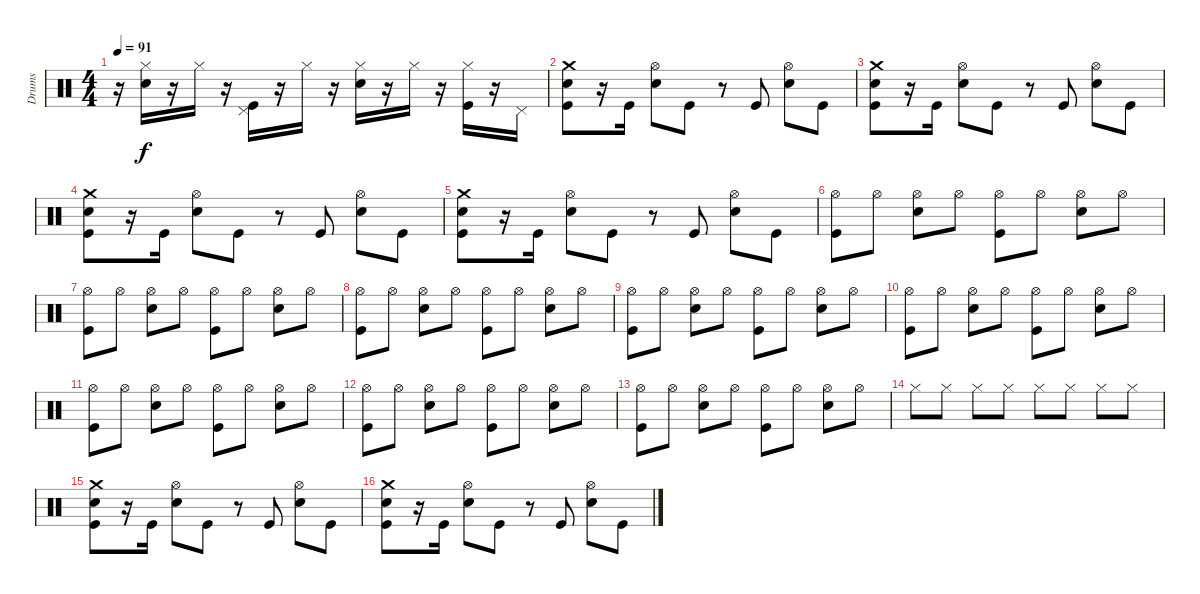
\track ("Drums" "Drums") {instrument percussion}
\staff {score}
\articulation defaults
\ts (4 4)
\tempo 91
\clef neutral
\ks c
r.16{dy f} ("Hi-Hat (closed)" "Snare (hit) 2").16 r.16 "Hi-Hat (closed)".16 r.16 ("Pedal Hi-Hat (hit)" "Kick (hit)").16 r.16 "Hi-Hat (closed)".16 r.16 ("Hi-Hat (closed)" "Snare (hit) 2").16 r.16 "Hi-Hat (closed)".16 r.16 ("Hi-Hat (closed)" "Kick (hit)").16 r.16 "Pedal Hi-Hat (hit)".16 |
("Crash medium (hit)" "Snare (hit) 2" "Kick (hit)").8 r.16 "Kick (hit)".16 ("Hi-Hat (open)" "Snare (hit) 2").8 "Kick (hit)".8 r.8 "Kick (hit)".8 ("Hi-Hat (open)" "Snare (hit) 2").8 "Kick (hit)".8 |
("Crash medium (hit)" "Snare (hit) 2" "Kick (hit)").8 r.16 "Kick (hit)".16 ("Hi-Hat (open)" "Snare (hit) 2").8 "Kick (hit)".8 r.8 "Kick (hit)".8 ("Hi-Hat (open)" "Snare (hit) 2").8 "Kick (hit)".8 |
("Crash medium (hit)" "Snare (hit) 2" "Kick (hit)").8 r.16 "Kick (hit)".16 ("Hi-Hat (open)" "Snare (hit) 2").8 "Kick (hit)".8 r.8 "Kick (hit)".8 ("Hi-Hat (open)" "Snare (hit) 2").8 "Kick (hit)".8 |
("Crash medium (hit)" "Snare (hit) 2" "Kick (hit)").8 r.16 "Kick (hit)".16 ("Hi-Hat (open)" "Snare (hit) 2").8 "Kick (hit)".8 r.8 "Kick (hit)".8 ("Hi-Hat (open)" "Snare (hit) 2").8 "Kick (hit)".8 |
("Hi-Hat (open)" "Kick (hit)").8 "Hi-Hat (open)".8 ("Hi-Hat (open)" "Snare (hit) 2").8 "Hi-Hat (open)".8 ("Hi-Hat (open)" "Kick (hit)").8 "Hi-Hat (open)".8 ("Hi-Hat (open)" "Snare (hit) 2").8 "Hi-Hat (open)".8 |
("Hi-Hat (open)" "Kick (hit)").8 "Hi-Hat (open)".8 ("Hi-Hat (open)" "Snare (hit) 2").8 "Hi-Hat (open)".8 ("Hi-Hat (open)" "Kick (hit)").8 "Hi-Hat (open)".8 ("Hi-Hat (open)" "Snare (hit) 2").8 "Hi-Hat (open)".8 |
("Hi-Hat (open)" "Kick (hit)").8 "Hi-Hat (open)".8 ("Hi-Hat (open)" "Snare (hit) 2").8 "Hi-Hat (open)".8 ("Hi-Hat (open)" "Kick (hit)").8 "Hi-Hat (open)".8 ("Hi-Hat (open)" "Snare (hit) 2").8 "Hi-Hat (open)".8 |
("Hi-Hat (open)" "Kick (hit)").8 "Hi-Hat (open)".8 ("Hi-Hat (open)" "Snare (hit) 2").8 "Hi-Hat (open)".8 ("Hi-Hat (open)" "Kick (hit)").8 "Hi-Hat (open)".8 ("Hi-Hat (open)" "Snare (hit) 2").8 "Hi-Hat (open)".8 |
("Hi-Hat (open)" "Kick (hit)").8 "Hi-Hat (open)".8 ("Hi-Hat (open)" "Snare (hit) 2").8 "Hi-Hat (open)".8 ("Hi-Hat (open)" "Kick (hit)").8 "Hi-Hat (open)".8 ("Hi-Hat (open)" "Snare (hit) 2").8 "Hi-Hat (open)".8 |
("Hi-Hat (open)" "Kick (hit)").8 "Hi-Hat (open)".8 ("Hi-Hat (open)" "Snare (hit) 2").8 "Hi-Hat (open)".8 ("Hi-Hat (open)" "Kick (hit)").8 "Hi-Hat (open)".8 ("Hi-Hat (open)" "Snare (hit) 2").8 "Hi-Hat (open)".8 |
("Hi-Hat (open)" "Kick (hit)").8 "Hi-Hat (open)".8 ("Hi-Hat (open)" "Snare (hit) 2").8 "Hi-Hat (open)".8 ("Hi-Hat (open)" "Kick (hit)").8 "Hi-Hat (open)".8 ("Hi-Hat (open)" "Snare (hit) 2").8 "Hi-Hat (open)".8 |
("Hi-Hat (open)" "Kick (hit)").8 "Hi-Hat (open)".8 ("Hi-Hat (open)" "Snare (hit) 2").8 "Hi-Hat (open)".8 ("Hi-Hat (open)" "Kick (hit)").8 "Hi-Hat (open)".8 ("Hi-Hat (open)" "Snare (hit) 2").8 "Hi-Hat (open)".8 |
"Hi-Hat (closed)".8 "Hi-Hat (closed)".8 "Hi-Hat (closed)".8 "Hi-Hat (closed)".8 "Hi-Hat (closed)".8 "Hi-Hat (closed)".8 "Hi-Hat (closed)".8 "Hi-Hat (closed)".8 |
("Crash medium (hit)" "Snare (hit) 2" "Kick (hit)").8 r.16 "Kick (hit)".16 ("Hi-Hat (open)" "Snare (hit) 2").8 "Kick (hit)".8 r.8 "Kick (hit)".8 ("Hi-Hat (open)" "Snare (hit) 2").8 "Kick (hit)".8 |
("Crash medium (hit)" "Snare (hit) 2" "Kick (hit)").8 r.16 "Kick (hit)".16 ("Hi-Hat (open)" "Snare (hit) 2").8 "Kick (hit)".8 r.8 "Kick (hit)".8 ("Hi-Hat (open)" "Snare (hit) 2").8 "Kick (hit)".8
